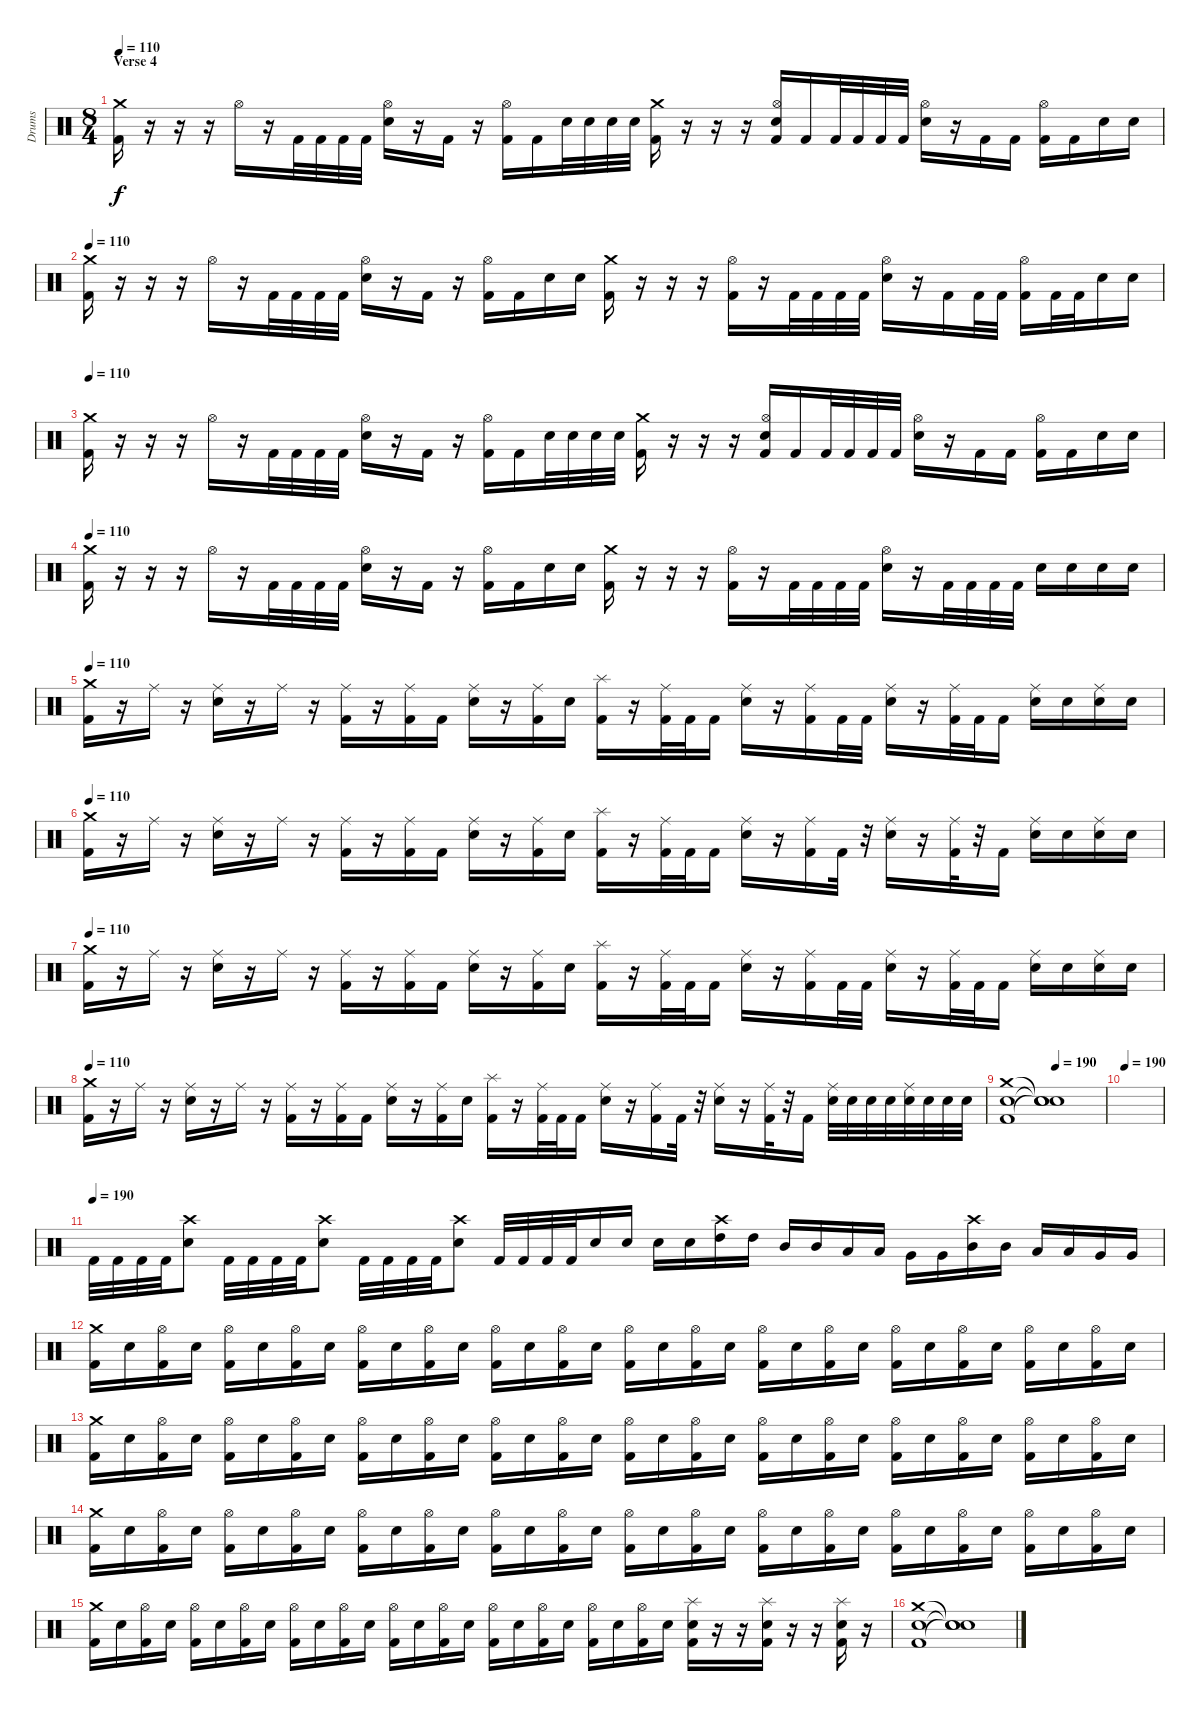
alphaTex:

\track ("Drums" "Drums") {instrument percussion}
\staff
\articulation defaults
\ts (8 4)
\section ("" "Verse 4")
\tempo 110
\clef neutral
\ks c
("Crash medium (hit)" "Kick (hit) 2").16{dy f} r.16 r.16 r.16 "Hi-Hat (open)".16 r.16 "Kick (hit) 2".32 "Kick (hit) 2".32 "Kick (hit) 2".32 "Kick (hit) 2".32 ("Hi-Hat (open)" "Electric Snare (hit)").16 r.16 "Kick (hit) 2".16 r.16 ("Hi-Hat (open)" "Kick (hit) 2").16 "Kick (hit) 2".16 "Electric Snare (hit)".32 "Electric Snare (hit)".32 "Electric Snare (hit)".32 "Electric Snare (hit)".32 ("Crash medium (hit)" "Kick (hit) 2").16 r.16 r.16 r.16 ("Hi-Hat (open)" "Electric Snare (hit)" "Kick (hit) 2").16 "Kick (hit) 2".16 "Kick (hit) 2".32 "Kick (hit) 2".32 "Kick (hit) 2".32 "Kick (hit) 2".32 ("Hi-Hat (open)" "Electric Snare (hit)").16 r.16 "Kick (hit) 2".16 "Kick (hit) 2".16 ("Hi-Hat (open)" "Kick (hit) 2").16 "Kick (hit) 2".16 "Electric Snare (hit)".16 "Electric Snare (hit)".16 |
\tempo 110
("Crash medium (hit)" "Kick (hit) 2").16 r.16 r.16 r.16 "Hi-Hat (open)".16 r.16 "Kick (hit) 2".32 "Kick (hit) 2".32 "Kick (hit) 2".32 "Kick (hit) 2".32 ("Hi-Hat (open)" "Electric Snare (hit)").16 r.16 "Kick (hit) 2".16 r.16 ("Hi-Hat (open)" "Kick (hit) 2").16 "Kick (hit) 2".16 "Electric Snare (hit)".16 "Electric Snare (hit)".16 ("Crash medium (hit)" "Kick (hit) 2").16 r.16 r.16 r.16 ("Hi-Hat (open)" "Kick (hit) 2").16 r.16 "Kick (hit) 2".32 "Kick (hit) 2".32 "Kick (hit) 2".32 "Kick (hit) 2".32 ("Hi-Hat (open)" "Electric Snare (hit)").16 r.16 "Kick (hit) 2".16 "Kick (hit) 2".32 "Kick (hit) 2".32 ("Hi-Hat (open)" "Kick (hit) 2").16 "Kick (hit) 2".32 "Kick (hit) 2".32 "Electric Snare (hit)".16 "Electric Snare (hit)".16 |
\tempo 110
("Crash medium (hit)" "Kick (hit) 2").16 r.16 r.16 r.16 "Hi-Hat (open)".16 r.16 "Kick (hit) 2".32 "Kick (hit) 2".32 "Kick (hit) 2".32 "Kick (hit) 2".32 ("Hi-Hat (open)" "Electric Snare (hit)").16 r.16 "Kick (hit) 2".16 r.16 ("Hi-Hat (open)" "Kick (hit) 2").16 "Kick (hit) 2".16 "Electric Snare (hit)".32 "Electric Snare (hit)".32 "Electric Snare (hit)".32 "Electric Snare (hit)".32 ("Crash medium (hit)" "Kick (hit) 2").16 r.16 r.16 r.16 ("Hi-Hat (open)" "Electric Snare (hit)" "Kick (hit) 2").16 "Kick (hit) 2".16 "Kick (hit) 2".32 "Kick (hit) 2".32 "Kick (hit) 2".32 "Kick (hit) 2".32 ("Hi-Hat (open)" "Electric Snare (hit)").16 r.16 "Kick (hit) 2".16 "Kick (hit) 2".16 ("Hi-Hat (open)" "Kick (hit) 2").16 "Kick (hit) 2".16 "Electric Snare (hit)".16 "Electric Snare (hit)".16 |
\tempo 110
("Crash medium (hit)" "Kick (hit) 2").16 r.16 r.16 r.16 "Hi-Hat (open)".16 r.16 "Kick (hit) 2".32 "Kick (hit) 2".32 "Kick (hit) 2".32 "Kick (hit) 2".32 ("Hi-Hat (open)" "Electric Snare (hit)").16 r.16 "Kick (hit) 2".16 r.16 ("Hi-Hat (open)" "Kick (hit) 2").16 "Kick (hit) 2".16 "Electric Snare (hit)".16 "Electric Snare (hit)".16 ("Crash medium (hit)" "Kick (hit) 2").16 r.16 r.16 r.16 ("Hi-Hat (open)" "Kick (hit) 2").16 r.16 "Kick (hit) 2".32 "Kick (hit) 2".32 "Kick (hit) 2".32 "Kick (hit) 2".32 ("Hi-Hat (open)" "Electric Snare (hit)").16 r.16 "Kick (hit) 2".32 "Kick (hit) 2".32 "Kick (hit) 2".32 "Kick (hit) 2".32 "Electric Snare (hit)".16 "Electric Snare (hit)".16 "Electric Snare (hit)".16 "Electric Snare (hit)".16 |
\tempo 110
("Crash medium (hit)" "Kick (hit) 2").16 r.16 "Ride (middle)".16 r.16 ("Ride (middle)" "Electric Snare (hit)").16 r.16 "Ride (middle)".16 r.16 ("Ride (middle)" "Kick (hit) 2").16 r.16 ("Ride (middle)" "Kick (hit) 2").16 "Kick (hit) 2".16 ("Ride (middle)" "Electric Snare (hit)").16 r.16 ("Ride (middle)" "Kick (hit) 2").16 "Electric Snare (hit)".16 ("Splash (hit)" "Kick (hit) 2").16 r.16 ("Ride (middle)" "Kick (hit) 2").32 "Kick (hit) 2".32 "Kick (hit) 2".16 ("Ride (middle)" "Electric Snare (hit)").16 r.16 ("Ride (middle)" "Kick (hit) 2").16 "Kick (hit) 2".32 "Kick (hit) 2".32 ("Ride (middle)" "Electric Snare (hit)").16 r.16 ("Ride (middle)" "Kick (hit) 2").32 "Kick (hit) 2".32 "Kick (hit) 2".16 ("Ride (middle)" "Electric Snare (hit)").16 "Electric Snare (hit)".16 ("Ride (middle)" "Electric Snare (hit)").16 "Electric Snare (hit)".16 |
\tempo 110
("Crash medium (hit)" "Kick (hit) 2").16 r.16 "Ride (middle)".16 r.16 ("Ride (middle)" "Electric Snare (hit)").16 r.16 "Ride (middle)".16 r.16 ("Ride (middle)" "Kick (hit) 2").16 r.16 ("Ride (middle)" "Kick (hit) 2").16 "Kick (hit) 2".16 ("Ride (middle)" "Electric Snare (hit)").16 r.16 ("Ride (middle)" "Kick (hit) 2").16 "Electric Snare (hit)".16 ("Splash (hit)" "Kick (hit) 2").16 r.16 ("Ride (middle)" "Kick (hit) 2").32 "Kick (hit) 2".32 "Kick (hit) 2".16 ("Ride (middle)" "Electric Snare (hit)").16 r.16 ("Ride (middle)" "Kick (hit) 2").16 "Kick (hit) 2".32 r.32 ("Ride (middle)" "Electric Snare (hit)").16 r.16 ("Ride (middle)" "Kick (hit) 2").32 r.32 "Kick (hit) 2".16 ("Ride (middle)" "Electric Snare (hit)").16 "Electric Snare (hit)".16 ("Ride (middle)" "Electric Snare (hit)").16 "Electric Snare (hit)".16 |
\tempo 110
("Crash medium (hit)" "Kick (hit) 2").16 r.16 "Ride (middle)".16 r.16 ("Ride (middle)" "Electric Snare (hit)").16 r.16 "Ride (middle)".16 r.16 ("Ride (middle)" "Kick (hit) 2").16 r.16 ("Ride (middle)" "Kick (hit) 2").16 "Kick (hit) 2".16 ("Ride (middle)" "Electric Snare (hit)").16 r.16 ("Ride (middle)" "Kick (hit) 2").16 "Electric Snare (hit)".16 ("Splash (hit)" "Kick (hit) 2").16 r.16 ("Ride (middle)" "Kick (hit) 2").32 "Kick (hit) 2".32 "Kick (hit) 2".16 ("Ride (middle)" "Electric Snare (hit)").16 r.16 ("Ride (middle)" "Kick (hit) 2").16 "Kick (hit) 2".32 "Kick (hit) 2".32 ("Ride (middle)" "Electric Snare (hit)").16 r.16 ("Ride (middle)" "Kick (hit) 2").32 "Kick (hit) 2".32 "Kick (hit) 2".16 ("Ride (middle)" "Electric Snare (hit)").16 "Electric Snare (hit)".16 ("Ride (middle)" "Electric Snare (hit)").16 "Electric Snare (hit)".16 |
\tempo 110
("Crash medium (hit)" "Kick (hit) 2").16 r.16 "Ride (middle)".16 r.16 ("Ride (middle)" "Electric Snare (hit)").16 r.16 "Ride (middle)".16 r.16 ("Ride (middle)" "Kick (hit) 2").16 r.16 ("Ride (middle)" "Kick (hit) 2").16 "Kick (hit) 2".16 ("Ride (middle)" "Electric Snare (hit)").16 r.16 ("Ride (middle)" "Kick (hit) 2").16 "Electric Snare (hit)".16 ("Splash (hit)" "Kick (hit) 2").16 r.16 ("Ride (middle)" "Kick (hit) 2").32 "Kick (hit) 2".32 "Kick (hit) 2".16 ("Ride (middle)" "Electric Snare (hit)").16 r.16 ("Ride (middle)" "Kick (hit) 2").16 "Kick (hit) 2".32 r.32 ("Ride (middle)" "Electric Snare (hit)").16 r.16 ("Ride (middle)" "Kick (hit) 2").32 r.32 "Kick (hit) 2".16 ("Ride (middle)" "Electric Snare (hit)").32 "Electric Snare (hit)".32 "Electric Snare (hit)".32 "Electric Snare (hit)".32 ("Ride (middle)" "Electric Snare (hit)").32 "Electric Snare (hit)".32 "Electric Snare (hit)".32 "Electric Snare (hit)".32 |
\tempo (190 0.5)
("Crash medium (hit)" "Kick (hit) 2" "Electric Snare (hit)").1 ("Snare (hit)"{t} "Snare (hit)"{t} "Snare (hit)"{t}).1 |
\tempo 190
|
\tempo (190)
"Kick (hit) 2".32 "Kick (hit) 2".32 "Kick (hit) 2".32 "Kick (hit) 2".32 ("Crash high (hit)" "Electric Snare (hit)").8 "Kick (hit) 2".32 "Kick (hit) 2".32 "Kick (hit) 2".32 "Kick (hit) 2".32 ("Crash high (hit)" "Electric Snare (hit)").8 "Kick (hit) 2".32 "Kick (hit) 2".32 "Kick (hit) 2".32 "Kick (hit) 2".32 ("Crash high (hit)" "Electric Snare (hit)").8 "Kick (hit) 2".32 "Kick (hit) 2".32 "Kick (hit) 2".32 "Kick (hit) 2".32 "Electric Snare (hit)".16 "Electric Snare (hit)".16 "Electric Snare (hit)".16 "Electric Snare (hit)".16 ("Crash high (hit)" "High Tom (hit)").16 "High Tom (hit)".16 "Mid Tom (hit)".16 "Mid Tom (hit)".16 "Low Tom (hit)".16 "Low Tom (hit)".16 "Very Low Tom (hit)".16 "Very Low Tom (hit)".16 ("Crash high (hit)" "Mid Tom (hit)").16 "Mid Tom (hit)".16 "Low Tom (hit)".16 "Low Tom (hit)".16 "Very Low Tom (hit)".16 "Very Low Tom (hit)".16 |
("Crash medium (hit)" "Kick (hit) 2").16 "Electric Snare (hit)".16 ("Hi-Hat (open)" "Kick (hit) 2").16 "Electric Snare (hit)".16 ("Hi-Hat (open)" "Kick (hit) 2").16 "Electric Snare (hit)".16 ("Hi-Hat (open)" "Kick (hit) 2").16 "Electric Snare (hit)".16 ("Hi-Hat (open)" "Kick (hit) 2").16 "Electric Snare (hit)".16 ("Hi-Hat (open)" "Kick (hit) 2").16 "Electric Snare (hit)".16 ("Hi-Hat (open)" "Kick (hit) 2").16 "Electric Snare (hit)".16 ("Hi-Hat (open)" "Kick (hit) 2").16 "Electric Snare (hit)".16 ("Hi-Hat (open)" "Kick (hit) 2").16 "Electric Snare (hit)".16 ("Hi-Hat (open)" "Kick (hit) 2").16 "Electric Snare (hit)".16 ("Hi-Hat (open)" "Kick (hit) 2").16 "Electric Snare (hit)".16 ("Hi-Hat (open)" "Kick (hit) 2").16 "Electric Snare (hit)".16 ("Hi-Hat (open)" "Kick (hit) 2").16 "Electric Snare (hit)".16 ("Hi-Hat (open)" "Kick (hit) 2").16 "Electric Snare (hit)".16 ("Hi-Hat (open)" "Kick (hit) 2").16 "Electric Snare (hit)".16 ("Hi-Hat (open)" "Kick (hit) 2").16 "Electric Snare (hit)".16 |
("Crash medium (hit)" "Kick (hit) 2").16 "Electric Snare (hit)".16 ("Hi-Hat (open)" "Kick (hit) 2").16 "Electric Snare (hit)".16 ("Hi-Hat (open)" "Kick (hit) 2").16 "Electric Snare (hit)".16 ("Hi-Hat (open)" "Kick (hit) 2").16 "Electric Snare (hit)".16 ("Hi-Hat (open)" "Kick (hit) 2").16 "Electric Snare (hit)".16 ("Hi-Hat (open)" "Kick (hit) 2").16 "Electric Snare (hit)".16 ("Hi-Hat (open)" "Kick (hit) 2").16 "Electric Snare (hit)".16 ("Hi-Hat (open)" "Kick (hit) 2").16 "Electric Snare (hit)".16 ("Hi-Hat (open)" "Kick (hit) 2").16 "Electric Snare (hit)".16 ("Hi-Hat (open)" "Kick (hit) 2").16 "Electric Snare (hit)".16 ("Hi-Hat (open)" "Kick (hit) 2").16 "Electric Snare (hit)".16 ("Hi-Hat (open)" "Kick (hit) 2").16 "Electric Snare (hit)".16 ("Hi-Hat (open)" "Kick (hit) 2").16 "Electric Snare (hit)".16 ("Hi-Hat (open)" "Kick (hit) 2").16 "Electric Snare (hit)".16 ("Hi-Hat (open)" "Kick (hit) 2").16 "Electric Snare (hit)".16 ("Hi-Hat (open)" "Kick (hit) 2").16 "Electric Snare (hit)".16 |
("Crash medium (hit)" "Kick (hit) 2").16 "Electric Snare (hit)".16 ("Hi-Hat (open)" "Kick (hit) 2").16 "Electric Snare (hit)".16 ("Hi-Hat (open)" "Kick (hit) 2").16 "Electric Snare (hit)".16 ("Hi-Hat (open)" "Kick (hit) 2").16 "Electric Snare (hit)".16 ("Hi-Hat (open)" "Kick (hit) 2").16 "Electric Snare (hit)".16 ("Hi-Hat (open)" "Kick (hit) 2").16 "Electric Snare (hit)".16 ("Hi-Hat (open)" "Kick (hit) 2").16 "Electric Snare (hit)".16 ("Hi-Hat (open)" "Kick (hit) 2").16 "Electric Snare (hit)".16 ("Hi-Hat (open)" "Kick (hit) 2").16 "Electric Snare (hit)".16 ("Hi-Hat (open)" "Kick (hit) 2").16 "Electric Snare (hit)".16 ("Hi-Hat (open)" "Kick (hit) 2").16 "Electric Snare (hit)".16 ("Hi-Hat (open)" "Kick (hit) 2").16 "Electric Snare (hit)".16 ("Hi-Hat (open)" "Kick (hit) 2").16 "Electric Snare (hit)".16 ("Hi-Hat (open)" "Kick (hit) 2").16 "Electric Snare (hit)".16 ("Hi-Hat (open)" "Kick (hit) 2").16 "Electric Snare (hit)".16 ("Hi-Hat (open)" "Kick (hit) 2").16 "Electric Snare (hit)".16 |
("Crash medium (hit)" "Kick (hit) 2").16 "Electric Snare (hit)".16 ("Hi-Hat (open)" "Kick (hit) 2").16 "Electric Snare (hit)".16 ("Hi-Hat (open)" "Kick (hit) 2").16 "Electric Snare (hit)".16 ("Hi-Hat (open)" "Kick (hit) 2").16 "Electric Snare (hit)".16 ("Hi-Hat (open)" "Kick (hit) 2").16 "Electric Snare (hit)".16 ("Hi-Hat (open)" "Kick (hit) 2").16 "Electric Snare (hit)".16 ("Hi-Hat (open)" "Kick (hit) 2").16 "Electric Snare (hit)".16 ("Hi-Hat (open)" "Kick (hit) 2").16 "Electric Snare (hit)".16 ("Hi-Hat (open)" "Kick (hit) 2").16 "Electric Snare (hit)".16 ("Hi-Hat (open)" "Kick (hit) 2").16 "Electric Snare (hit)".16 ("Hi-Hat (open)" "Kick (hit) 2").16 "Electric Snare (hit)".16 ("Hi-Hat (open)" "Kick (hit) 2").16 "Electric Snare (hit)".16 ("Splash (hit)" "Electric Snare (hit)" "Kick (hit) 2").16 r.16 r.16 ("Splash (hit)" "Electric Snare (hit)" "Kick (hit) 2").16 r.16 r.16 ("Splash (hit)" "Electric Snare (hit)" "Kick (hit) 2").16 r.16 |
("Crash medium (hit)" "Electric Snare (hit)" "Kick (hit) 2").1 ("Snare (hit)"{t} "Snare (hit)"{t} "Snare (hit)"{t}).1
